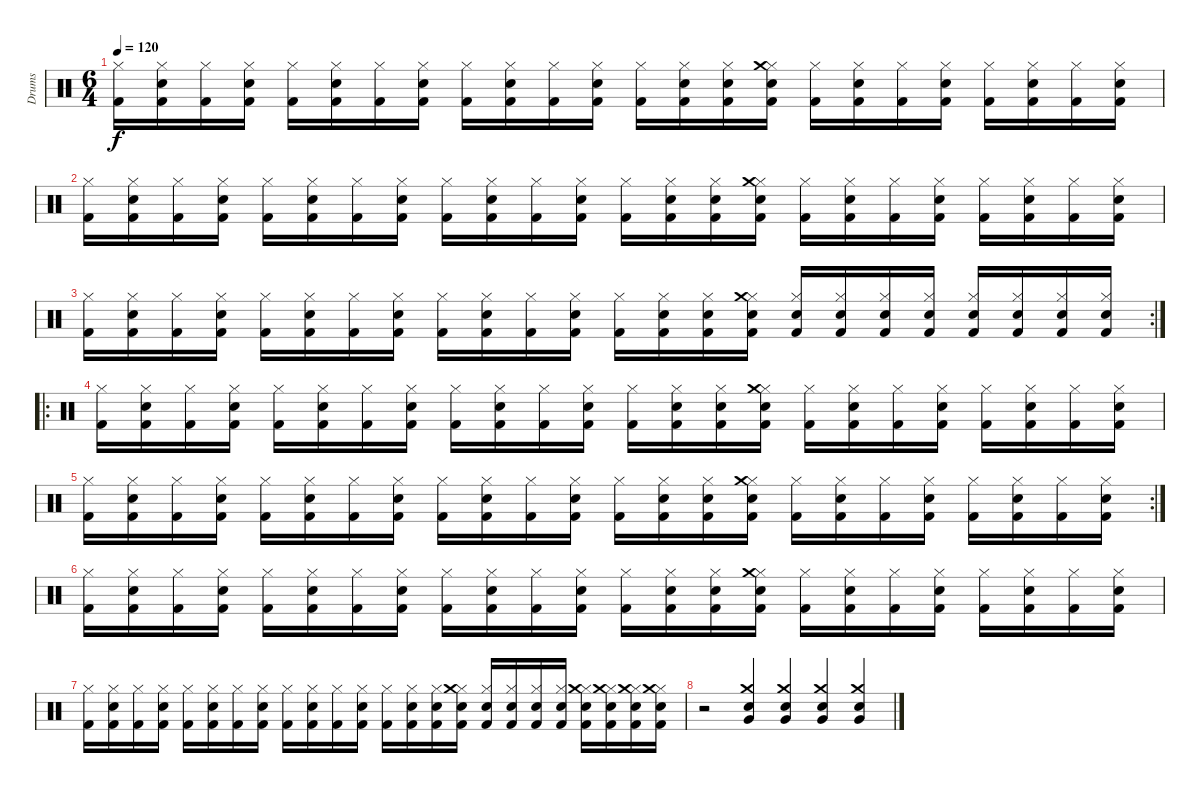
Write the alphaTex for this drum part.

\track ("Drums" "Drums") {instrument percussion}
\staff {score}
\articulation defaults
\ts (6 4)
\tempo 120
\clef neutral
\ks c
("Kick (hit) 2" "Hi-Hat (closed)").16{dy f} ("Kick (hit) 2" "Hi-Hat (closed)" "Electric Snare (hit)").16 ("Kick (hit) 2" "Hi-Hat (closed)").16 ("Kick (hit) 2" "Hi-Hat (closed)" "Electric Snare (hit)").16 ("Kick (hit) 2" "Hi-Hat (closed)").16 ("Kick (hit) 2" "Hi-Hat (closed)" "Electric Snare (hit)").16 ("Kick (hit) 2" "Hi-Hat (closed)").16 ("Kick (hit) 2" "Hi-Hat (closed)" "Electric Snare (hit)").16 ("Kick (hit) 2" "Hi-Hat (closed)").16 ("Kick (hit) 2" "Hi-Hat (closed)" "Electric Snare (hit)").16 ("Kick (hit) 2" "Hi-Hat (closed)").16 ("Kick (hit) 2" "Hi-Hat (closed)" "Electric Snare (hit)").16 ("Kick (hit) 2" "Hi-Hat (closed)").16 ("Kick (hit) 2" "Hi-Hat (closed)" "Electric Snare (hit)").16 ("Kick (hit) 2" "Hi-Hat (closed)" "Electric Snare (hit)").16 ("Kick (hit) 2" "Hi-Hat (closed)" "Electric Snare (hit)" "Crash medium (hit)").16 ("Kick (hit) 2" "Hi-Hat (closed)").16 ("Kick (hit) 2" "Hi-Hat (closed)" "Electric Snare (hit)").16 ("Kick (hit) 2" "Hi-Hat (closed)").16 ("Kick (hit) 2" "Hi-Hat (closed)" "Electric Snare (hit)").16 ("Kick (hit) 2" "Hi-Hat (closed)").16 ("Kick (hit) 2" "Hi-Hat (closed)" "Electric Snare (hit)").16 ("Kick (hit) 2" "Hi-Hat (closed)").16 ("Kick (hit) 2" "Hi-Hat (closed)" "Electric Snare (hit)").16 |
("Kick (hit) 2" "Hi-Hat (closed)").16 ("Kick (hit) 2" "Hi-Hat (closed)" "Electric Snare (hit)").16 ("Kick (hit) 2" "Hi-Hat (closed)").16 ("Kick (hit) 2" "Hi-Hat (closed)" "Electric Snare (hit)").16 ("Kick (hit) 2" "Hi-Hat (closed)").16 ("Kick (hit) 2" "Hi-Hat (closed)" "Electric Snare (hit)").16 ("Kick (hit) 2" "Hi-Hat (closed)").16 ("Kick (hit) 2" "Hi-Hat (closed)" "Electric Snare (hit)").16 ("Kick (hit) 2" "Hi-Hat (closed)").16 ("Kick (hit) 2" "Hi-Hat (closed)" "Electric Snare (hit)").16 ("Kick (hit) 2" "Hi-Hat (closed)").16 ("Kick (hit) 2" "Hi-Hat (closed)" "Electric Snare (hit)").16 ("Kick (hit) 2" "Hi-Hat (closed)").16 ("Kick (hit) 2" "Hi-Hat (closed)" "Electric Snare (hit)").16 ("Kick (hit) 2" "Hi-Hat (closed)" "Electric Snare (hit)").16 ("Kick (hit) 2" "Hi-Hat (closed)" "Electric Snare (hit)" "Crash medium (hit)").16 ("Kick (hit) 2" "Hi-Hat (closed)").16 ("Kick (hit) 2" "Hi-Hat (closed)" "Electric Snare (hit)").16 ("Kick (hit) 2" "Hi-Hat (closed)").16 ("Kick (hit) 2" "Hi-Hat (closed)" "Electric Snare (hit)").16 ("Kick (hit) 2" "Hi-Hat (closed)").16 ("Kick (hit) 2" "Hi-Hat (closed)" "Electric Snare (hit)").16 ("Kick (hit) 2" "Hi-Hat (closed)").16 ("Kick (hit) 2" "Hi-Hat (closed)" "Electric Snare (hit)").16 |
\rc 2
("Kick (hit) 2" "Hi-Hat (closed)").16 ("Kick (hit) 2" "Hi-Hat (closed)" "Electric Snare (hit)").16 ("Kick (hit) 2" "Hi-Hat (closed)").16 ("Kick (hit) 2" "Hi-Hat (closed)" "Electric Snare (hit)").16 ("Kick (hit) 2" "Hi-Hat (closed)").16 ("Kick (hit) 2" "Hi-Hat (closed)" "Electric Snare (hit)").16 ("Kick (hit) 2" "Hi-Hat (closed)").16 ("Kick (hit) 2" "Hi-Hat (closed)" "Electric Snare (hit)").16 ("Kick (hit) 2" "Hi-Hat (closed)").16 ("Kick (hit) 2" "Hi-Hat (closed)" "Electric Snare (hit)").16 ("Kick (hit) 2" "Hi-Hat (closed)").16 ("Kick (hit) 2" "Hi-Hat (closed)" "Electric Snare (hit)").16 ("Kick (hit) 2" "Hi-Hat (closed)").16 ("Kick (hit) 2" "Hi-Hat (closed)" "Electric Snare (hit)").16 ("Kick (hit) 2" "Hi-Hat (closed)" "Electric Snare (hit)").16 ("Kick (hit) 2" "Hi-Hat (closed)" "Electric Snare (hit)" "Crash medium (hit)").16 ("Kick (hit) 2" "Hi-Hat (closed)" "Electric Snare (hit)").16 ("Kick (hit) 2" "Hi-Hat (closed)" "Electric Snare (hit)").16 ("Kick (hit) 2" "Hi-Hat (closed)" "Electric Snare (hit)").16 ("Kick (hit) 2" "Hi-Hat (closed)" "Electric Snare (hit)").16 ("Kick (hit) 2" "Hi-Hat (closed)" "Electric Snare (hit)").16 ("Kick (hit) 2" "Hi-Hat (closed)" "Electric Snare (hit)").16 ("Kick (hit) 2" "Hi-Hat (closed)" "Electric Snare (hit)").16 ("Kick (hit) 2" "Hi-Hat (closed)" "Electric Snare (hit)").16 |
\ro
("Kick (hit) 2" "Hi-Hat (closed)").16 ("Kick (hit) 2" "Hi-Hat (closed)" "Electric Snare (hit)").16 ("Kick (hit) 2" "Hi-Hat (closed)").16 ("Kick (hit) 2" "Hi-Hat (closed)" "Electric Snare (hit)").16 ("Kick (hit) 2" "Hi-Hat (closed)").16 ("Kick (hit) 2" "Hi-Hat (closed)" "Electric Snare (hit)").16 ("Kick (hit) 2" "Hi-Hat (closed)").16 ("Kick (hit) 2" "Hi-Hat (closed)" "Electric Snare (hit)").16 ("Kick (hit) 2" "Hi-Hat (closed)").16 ("Kick (hit) 2" "Hi-Hat (closed)" "Electric Snare (hit)").16 ("Kick (hit) 2" "Hi-Hat (closed)").16 ("Kick (hit) 2" "Hi-Hat (closed)" "Electric Snare (hit)").16 ("Kick (hit) 2" "Hi-Hat (closed)").16 ("Kick (hit) 2" "Hi-Hat (closed)" "Electric Snare (hit)").16 ("Kick (hit) 2" "Hi-Hat (closed)" "Electric Snare (hit)").16 ("Kick (hit) 2" "Hi-Hat (closed)" "Electric Snare (hit)" "Crash medium (hit)").16 ("Kick (hit) 2" "Hi-Hat (closed)").16 ("Kick (hit) 2" "Hi-Hat (closed)" "Electric Snare (hit)").16 ("Kick (hit) 2" "Hi-Hat (closed)").16 ("Kick (hit) 2" "Hi-Hat (closed)" "Electric Snare (hit)").16 ("Kick (hit) 2" "Hi-Hat (closed)").16 ("Kick (hit) 2" "Hi-Hat (closed)" "Electric Snare (hit)").16 ("Kick (hit) 2" "Hi-Hat (closed)").16 ("Kick (hit) 2" "Hi-Hat (closed)" "Electric Snare (hit)").16 |
\rc 2
("Kick (hit) 2" "Hi-Hat (closed)").16 ("Kick (hit) 2" "Hi-Hat (closed)" "Electric Snare (hit)").16 ("Kick (hit) 2" "Hi-Hat (closed)").16 ("Kick (hit) 2" "Hi-Hat (closed)" "Electric Snare (hit)").16 ("Kick (hit) 2" "Hi-Hat (closed)").16 ("Kick (hit) 2" "Hi-Hat (closed)" "Electric Snare (hit)").16 ("Kick (hit) 2" "Hi-Hat (closed)").16 ("Kick (hit) 2" "Hi-Hat (closed)" "Electric Snare (hit)").16 ("Kick (hit) 2" "Hi-Hat (closed)").16 ("Kick (hit) 2" "Hi-Hat (closed)" "Electric Snare (hit)").16 ("Kick (hit) 2" "Hi-Hat (closed)").16 ("Kick (hit) 2" "Hi-Hat (closed)" "Electric Snare (hit)").16 ("Kick (hit) 2" "Hi-Hat (closed)").16 ("Kick (hit) 2" "Hi-Hat (closed)" "Electric Snare (hit)").16 ("Kick (hit) 2" "Hi-Hat (closed)" "Electric Snare (hit)").16 ("Kick (hit) 2" "Hi-Hat (closed)" "Electric Snare (hit)" "Crash medium (hit)").16 ("Kick (hit) 2" "Hi-Hat (closed)").16 ("Kick (hit) 2" "Hi-Hat (closed)" "Electric Snare (hit)").16 ("Kick (hit) 2" "Hi-Hat (closed)").16 ("Kick (hit) 2" "Hi-Hat (closed)" "Electric Snare (hit)").16 ("Kick (hit) 2" "Hi-Hat (closed)").16 ("Kick (hit) 2" "Hi-Hat (closed)" "Electric Snare (hit)").16 ("Kick (hit) 2" "Hi-Hat (closed)").16 ("Kick (hit) 2" "Hi-Hat (closed)" "Electric Snare (hit)").16 |
("Kick (hit) 2" "Hi-Hat (closed)").16 ("Kick (hit) 2" "Hi-Hat (closed)" "Electric Snare (hit)").16 ("Kick (hit) 2" "Hi-Hat (closed)").16 ("Kick (hit) 2" "Hi-Hat (closed)" "Electric Snare (hit)").16 ("Kick (hit) 2" "Hi-Hat (closed)").16 ("Kick (hit) 2" "Hi-Hat (closed)" "Electric Snare (hit)").16 ("Kick (hit) 2" "Hi-Hat (closed)").16 ("Kick (hit) 2" "Hi-Hat (closed)" "Electric Snare (hit)").16 ("Kick (hit) 2" "Hi-Hat (closed)").16 ("Kick (hit) 2" "Hi-Hat (closed)" "Electric Snare (hit)").16 ("Kick (hit) 2" "Hi-Hat (closed)").16 ("Kick (hit) 2" "Hi-Hat (closed)" "Electric Snare (hit)").16 ("Kick (hit) 2" "Hi-Hat (closed)").16 ("Kick (hit) 2" "Hi-Hat (closed)" "Electric Snare (hit)").16 ("Kick (hit) 2" "Hi-Hat (closed)" "Electric Snare (hit)").16 ("Kick (hit) 2" "Hi-Hat (closed)" "Electric Snare (hit)" "Crash medium (hit)").16 ("Kick (hit) 2" "Hi-Hat (closed)").16 ("Kick (hit) 2" "Hi-Hat (closed)" "Electric Snare (hit)").16 ("Kick (hit) 2" "Hi-Hat (closed)").16 ("Kick (hit) 2" "Hi-Hat (closed)" "Electric Snare (hit)").16 ("Kick (hit) 2" "Hi-Hat (closed)").16 ("Kick (hit) 2" "Hi-Hat (closed)" "Electric Snare (hit)").16 ("Kick (hit) 2" "Hi-Hat (closed)").16 ("Kick (hit) 2" "Hi-Hat (closed)" "Electric Snare (hit)").16 |
("Kick (hit) 2" "Hi-Hat (closed)").16 ("Kick (hit) 2" "Hi-Hat (closed)" "Electric Snare (hit)").16 ("Kick (hit) 2" "Hi-Hat (closed)").16 ("Kick (hit) 2" "Hi-Hat (closed)" "Electric Snare (hit)").16 ("Kick (hit) 2" "Hi-Hat (closed)").16 ("Kick (hit) 2" "Hi-Hat (closed)" "Electric Snare (hit)").16 ("Kick (hit) 2" "Hi-Hat (closed)").16 ("Kick (hit) 2" "Hi-Hat (closed)" "Electric Snare (hit)").16 ("Kick (hit) 2" "Hi-Hat (closed)").16 ("Kick (hit) 2" "Hi-Hat (closed)" "Electric Snare (hit)").16 ("Kick (hit) 2" "Hi-Hat (closed)").16 ("Kick (hit) 2" "Hi-Hat (closed)" "Electric Snare (hit)").16 ("Kick (hit) 2" "Hi-Hat (closed)").16 ("Kick (hit) 2" "Hi-Hat (closed)" "Electric Snare (hit)").16 ("Kick (hit) 2" "Hi-Hat (closed)" "Electric Snare (hit)").16 ("Kick (hit) 2" "Hi-Hat (closed)" "Electric Snare (hit)" "Crash medium (hit)").16 ("Kick (hit) 2" "Hi-Hat (closed)" "Electric Snare (hit)").16 ("Kick (hit) 2" "Hi-Hat (closed)" "Electric Snare (hit)").16 ("Kick (hit) 2" "Hi-Hat (closed)" "Electric Snare (hit)").16 ("Kick (hit) 2" "Hi-Hat (closed)" "Electric Snare (hit)").16 ("Kick (hit) 2" "Hi-Hat (closed)" "Electric Snare (hit)" "Crash medium (hit)").16 ("Kick (hit) 2" "Hi-Hat (closed)" "Electric Snare (hit)" "Crash medium (hit)").16 ("Kick (hit) 2" "Hi-Hat (closed)" "Electric Snare (hit)" "Crash medium (hit)").16 ("Kick (hit) 2" "Hi-Hat (closed)" "Electric Snare (hit)" "Crash medium (hit)").16 |
r.2 ("Electric Snare (hit)" "Crash medium (hit)" "Very Low Tom (hit)").4 ("Electric Snare (hit)" "Crash medium (hit)" "Very Low Tom (hit)").4 ("Electric Snare (hit)" "Crash medium (hit)" "Very Low Tom (hit)").4 ("Electric Snare (hit)" "Crash medium (hit)" "Very Low Tom (hit)").4
